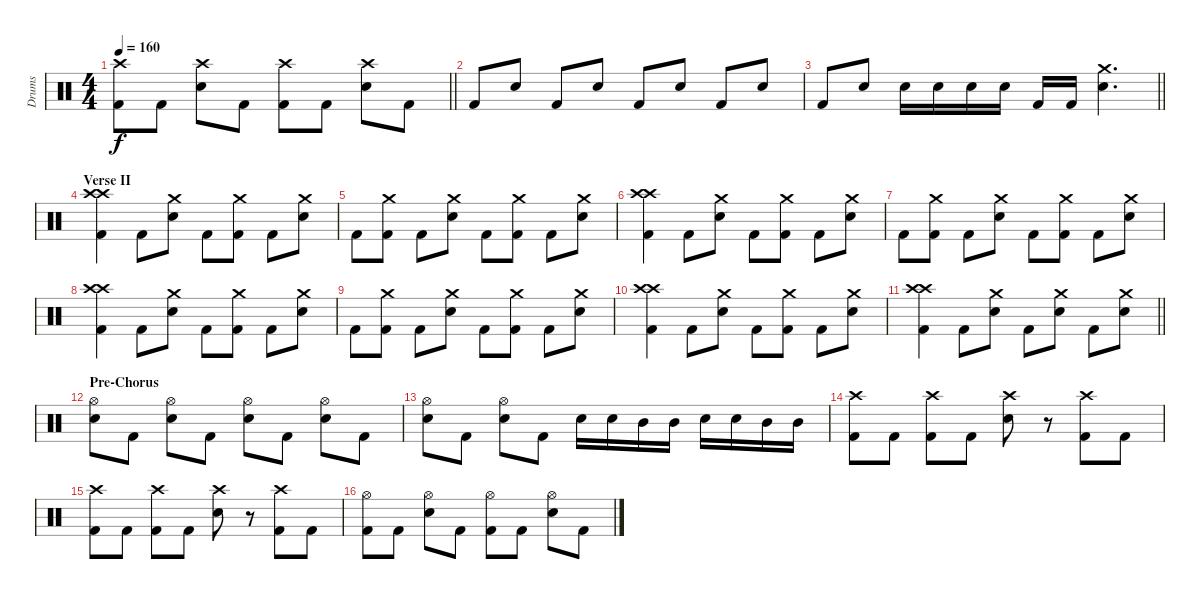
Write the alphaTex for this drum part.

\track ("Drums" "Drums") {instrument percussion}
\staff {score}
\articulation defaults
\ts (4 4)
\tempo 160
\clef neutral
\barLineRight lightlight
\ks c
("Crash high (hit)" "Kick (hit) 2").8{dy f} "Kick (hit) 2".8 ("Crash high (hit)" "Electric Snare (hit)").8 "Kick (hit) 2".8 ("Crash high (hit)" "Kick (hit) 2").8 "Kick (hit) 2".8 ("Crash high (hit)" "Electric Snare (hit)").8 "Kick (hit) 2".8 |
"Kick (hit) 2".8 "Electric Snare (hit)".8 "Kick (hit) 2".8 "Electric Snare (hit)".8 "Kick (hit) 2".8 "Electric Snare (hit)".8 "Kick (hit) 2".8 "Electric Snare (hit)".8 |
\barLineRight lightlight "Kick (hit) 2".8 "Electric Snare (hit)".8 "Electric Snare (hit)".16 "Electric Snare (hit)".16 "Electric Snare (hit)".16 "Electric Snare (hit)".16 "Kick (hit) 2".16 "Kick (hit) 2".16
("Crash medium (hit)" "Electric Snare (hit)").4{d} |
\section ("" "Verse II")
("Crash high (hit)" "Crash high (hit)" "Kick (hit) 2").4 "Kick (hit) 2".8 ("Crash medium (hit)" "Electric Snare (hit)").8 "Kick (hit) 2".8 ("Crash medium (hit)" "Kick (hit) 2").8 "Kick (hit) 2".8 ("Crash medium (hit)" "Electric Snare (hit)").8 |
"Kick (hit) 2".8 ("Crash medium (hit)" "Kick (hit) 2").8 "Kick (hit) 2".8 ("Crash medium (hit)" "Electric Snare (hit)").8 "Kick (hit) 2".8 ("Crash medium (hit)" "Kick (hit) 2").8 "Kick (hit) 2".8 ("Crash medium (hit)" "Electric Snare (hit)").8 |
("Crash high (hit)" "Crash high (hit)" "Kick (hit) 2").4 "Kick (hit) 2".8 ("Crash medium (hit)" "Electric Snare (hit)").8 "Kick (hit) 2".8 ("Crash medium (hit)" "Kick (hit) 2").8 "Kick (hit) 2".8 ("Crash medium (hit)" "Electric Snare (hit)").8 |
"Kick (hit) 2".8 ("Crash medium (hit)" "Kick (hit) 2").8 "Kick (hit) 2".8 ("Crash medium (hit)" "Electric Snare (hit)").8 "Kick (hit) 2".8 ("Crash medium (hit)" "Kick (hit) 2").8 "Kick (hit) 2".8 ("Crash medium (hit)" "Electric Snare (hit)").8 |
("Crash high (hit)" "Crash high (hit)" "Kick (hit) 2").4 "Kick (hit) 2".8 ("Crash medium (hit)" "Electric Snare (hit)").8 "Kick (hit) 2".8 ("Crash medium (hit)" "Kick (hit) 2").8 "Kick (hit) 2".8 ("Crash medium (hit)" "Electric Snare (hit)").8 |
"Kick (hit) 2".8 ("Crash medium (hit)" "Kick (hit) 2").8 "Kick (hit) 2".8 ("Crash medium (hit)" "Electric Snare (hit)").8 "Kick (hit) 2".8 ("Crash medium (hit)" "Kick (hit) 2").8 "Kick (hit) 2".8 ("Crash medium (hit)" "Electric Snare (hit)").8 |
("Crash high (hit)" "Crash high (hit)" "Kick (hit) 2").4 "Kick (hit) 2".8 ("Crash medium (hit)" "Electric Snare (hit)").8 "Kick (hit) 2".8 ("Crash medium (hit)" "Kick (hit) 2").8 "Kick (hit) 2".8 ("Crash medium (hit)" "Electric Snare (hit)").8 |
\barLineRight lightlight
("Crash high (hit)" "Crash high (hit)" "Kick (hit) 2").4 "Kick (hit) 2".8 ("Crash medium (hit)" "Electric Snare (hit)").8 "Kick (hit) 2".8 ("Crash medium (hit)" "Electric Snare (hit)").8 "Kick (hit) 2".8 ("Crash medium (hit)" "Electric Snare (hit)").8 |
\section ("" "Pre-Chorus")
("Hi-Hat (open)" "Electric Snare (hit)").8 "Kick (hit) 2".8 ("Hi-Hat (open)" "Electric Snare (hit)").8 "Kick (hit) 2".8 ("Hi-Hat (open)" "Electric Snare (hit)").8 "Kick (hit) 2".8 ("Hi-Hat (open)" "Electric Snare (hit)").8 "Kick (hit) 2".8 |
("Hi-Hat (open)" "Electric Snare (hit)").8 "Kick (hit) 2".8 ("Hi-Hat (open)" "Electric Snare (hit)").8 "Kick (hit) 2".8 "Electric Snare (hit)".16 "Electric Snare (hit)".16 "Mid Tom (hit)".16 "Mid Tom (hit)".16 "Electric Snare (hit)".16 "Electric Snare (hit)".16 "Mid Tom (hit)".16 "Mid Tom (hit)".16 |
("Crash high (hit)" "Kick (hit) 2").8 "Kick (hit) 2".8 ("Crash high (hit)" "Kick (hit) 2").8 "Kick (hit) 2".8 ("Crash high (hit)" "Electric Snare (hit)").8 r.8 ("Crash high (hit)" "Kick (hit) 2").8 "Kick (hit) 2".8 |
("Crash high (hit)" "Kick (hit) 2").8 "Kick (hit) 2".8 ("Crash high (hit)" "Kick (hit) 2").8 "Kick (hit) 2".8 ("Crash high (hit)" "Electric Snare (hit)").8 r.8 ("Crash high (hit)" "Kick (hit) 2").8 "Kick (hit) 2".8 |
("Hi-Hat (open)" "Kick (hit) 2").8 "Kick (hit) 2".8 ("Hi-Hat (open)" "Electric Snare (hit)").8 "Kick (hit) 2".8 ("Hi-Hat (open)" "Kick (hit) 2").8 "Kick (hit) 2".8 ("Hi-Hat (open)" "Electric Snare (hit)").8 "Kick (hit) 2".8
